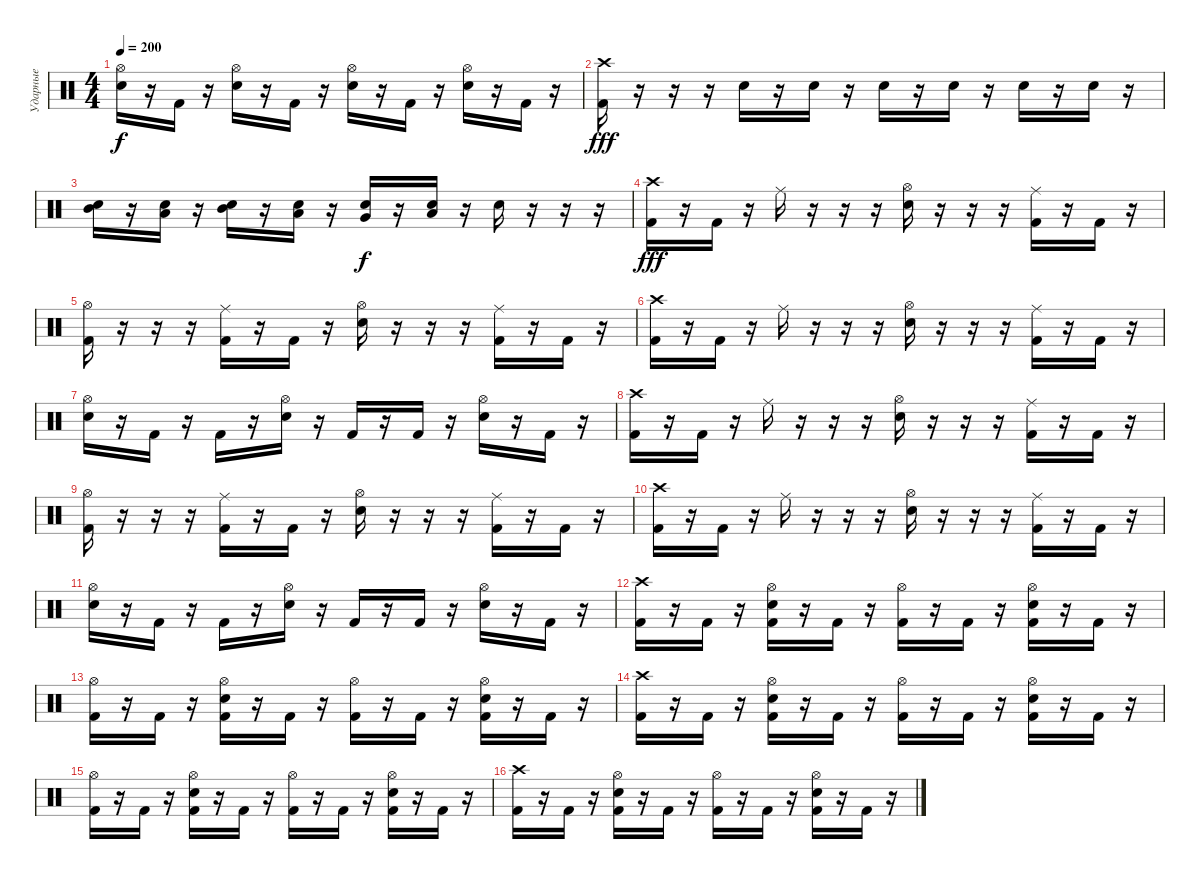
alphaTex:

\track ("Ударные" "Ударные") {instrument percussion}
\staff {score}
\articulation defaults
\ts (4 4)
\tempo 200
\clef neutral
\ks c
("Hi-Hat (open)" "Electric Snare (hit)").16{dy f} r.16 "Kick (hit) 2".16 r.16 ("Hi-Hat (open)" "Electric Snare (hit)").16 r.16 "Kick (hit) 2".16 r.16 ("Hi-Hat (open)" "Electric Snare (hit)").16 r.16 "Kick (hit) 2".16 r.16 ("Hi-Hat (open)" "Electric Snare (hit)").16 r.16 "Kick (hit) 2".16 r.16 |
("Crash high (hit)" "Kick (hit) 2").16{dy fff} r.16 r.16 r.16 "Electric Snare (hit)".16 r.16 "Electric Snare (hit)".16 r.16 "Electric Snare (hit)".16 r.16 "Electric Snare (hit)".16 r.16 "Electric Snare (hit)".16 r.16 "Electric Snare (hit)".16 r.16 |
("Mid Tom (hit)" "Electric Snare (hit)").16 r.16 ("Low Tom (hit)" "Electric Snare (hit)").16 r.16 ("Mid Tom (hit)" "Electric Snare (hit)").16 r.16 ("Low Tom (hit)" "Electric Snare (hit)").16 r.16 ("Very Low Tom (hit)" "Electric Snare (hit)").16{dy f} r.16 ("Low Floor Tom (hit)" "Electric Snare (hit)").16 r.16 "Electric Snare (hit)".16 r.16 r.16 r.16 |
("Crash high (hit)" "Kick (hit) 2").16{dy fff} r.16 "Kick (hit) 2".16 r.16 "Ride (middle)".16 r.16 r.16 r.16 ("Hi-Hat (open)" "Electric Snare (hit)").16 r.16 r.16 r.16 ("Ride (middle)" "Kick (hit) 2").16 r.16 "Kick (hit) 2".16 r.16 |
("Hi-Hat (open)" "Kick (hit) 2").16 r.16 r.16 r.16 ("Ride (middle)" "Kick (hit) 2").16 r.16 "Kick (hit) 2".16 r.16 ("Hi-Hat (open)" "Electric Snare (hit)").16 r.16 r.16 r.16 ("Ride (middle)" "Kick (hit) 2").16 r.16 "Kick (hit) 2".16 r.16 |
("Crash high (hit)" "Kick (hit) 2").16 r.16 "Kick (hit) 2".16 r.16 "Ride (middle)".16 r.16 r.16 r.16 ("Hi-Hat (open)" "Electric Snare (hit)").16 r.16 r.16 r.16 ("Ride (middle)" "Kick (hit) 2").16 r.16 "Kick (hit) 2".16 r.16 |
("Hi-Hat (open)" "Electric Snare (hit)").16 r.16 "Kick (hit) 2".16 r.16 "Kick (hit) 2".16 r.16 ("Hi-Hat (open)" "Electric Snare (hit)").16 r.16 "Kick (hit) 2".16 r.16 "Kick (hit) 2".16 r.16 ("Hi-Hat (open)" "Electric Snare (hit)").16 r.16 "Kick (hit) 2".16 r.16 |
("Crash high (hit)" "Kick (hit) 2").16 r.16 "Kick (hit) 2".16 r.16 "Ride (middle)".16 r.16 r.16 r.16 ("Hi-Hat (open)" "Electric Snare (hit)").16 r.16 r.16 r.16 ("Ride (middle)" "Kick (hit) 2").16 r.16 "Kick (hit) 2".16 r.16 |
("Hi-Hat (open)" "Kick (hit) 2").16 r.16 r.16 r.16 ("Ride (middle)" "Kick (hit) 2").16 r.16 "Kick (hit) 2".16 r.16 ("Hi-Hat (open)" "Electric Snare (hit)").16 r.16 r.16 r.16 ("Ride (middle)" "Kick (hit) 2").16 r.16 "Kick (hit) 2".16 r.16 |
("Crash high (hit)" "Kick (hit) 2").16 r.16 "Kick (hit) 2".16 r.16 "Ride (middle)".16 r.16 r.16 r.16 ("Hi-Hat (open)" "Electric Snare (hit)").16 r.16 r.16 r.16 ("Ride (middle)" "Kick (hit) 2").16 r.16 "Kick (hit) 2".16 r.16 |
("Hi-Hat (open)" "Electric Snare (hit)").16 r.16 "Kick (hit) 2".16 r.16 "Kick (hit) 2".16 r.16 ("Hi-Hat (open)" "Electric Snare (hit)").16 r.16 "Kick (hit) 2".16 r.16 "Kick (hit) 2".16 r.16 ("Hi-Hat (open)" "Electric Snare (hit)").16 r.16 "Kick (hit) 2".16 r.16 |
("Crash high (hit)" "Kick (hit) 2").16 r.16 "Kick (hit) 2".16 r.16 ("Hi-Hat (open)" "Electric Snare (hit)" "Kick (hit) 2").16 r.16 "Kick (hit) 2".16 r.16 ("Hi-Hat (open)" "Kick (hit) 2").16 r.16 "Kick (hit) 2".16 r.16 ("Hi-Hat (open)" "Electric Snare (hit)" "Kick (hit) 2").16 r.16 "Kick (hit) 2".16 r.16 |
("Hi-Hat (open)" "Kick (hit) 2").16 r.16 "Kick (hit) 2".16 r.16 ("Hi-Hat (open)" "Electric Snare (hit)" "Kick (hit) 2").16 r.16 "Kick (hit) 2".16 r.16 ("Hi-Hat (open)" "Kick (hit) 2").16 r.16 "Kick (hit) 2".16 r.16 ("Hi-Hat (open)" "Electric Snare (hit)" "Kick (hit) 2").16 r.16 "Kick (hit) 2".16 r.16 |
("Crash high (hit)" "Kick (hit) 2").16 r.16 "Kick (hit) 2".16 r.16 ("Hi-Hat (open)" "Electric Snare (hit)" "Kick (hit) 2").16 r.16 "Kick (hit) 2".16 r.16 ("Hi-Hat (open)" "Kick (hit) 2").16 r.16 "Kick (hit) 2".16 r.16 ("Hi-Hat (open)" "Electric Snare (hit)" "Kick (hit) 2").16 r.16 "Kick (hit) 2".16 r.16 |
("Hi-Hat (open)" "Kick (hit) 2").16 r.16 "Kick (hit) 2".16 r.16 ("Hi-Hat (open)" "Electric Snare (hit)" "Kick (hit) 2").16 r.16 "Kick (hit) 2".16 r.16 ("Hi-Hat (open)" "Kick (hit) 2").16 r.16 "Kick (hit) 2".16 r.16 ("Hi-Hat (open)" "Electric Snare (hit)" "Kick (hit) 2").16 r.16 "Kick (hit) 2".16 r.16 |
("Crash high (hit)" "Kick (hit) 2").16 r.16 "Kick (hit) 2".16 r.16 ("Hi-Hat (open)" "Electric Snare (hit)" "Kick (hit) 2").16 r.16 "Kick (hit) 2".16 r.16 ("Hi-Hat (open)" "Kick (hit) 2").16 r.16 "Kick (hit) 2".16 r.16 ("Hi-Hat (open)" "Electric Snare (hit)" "Kick (hit) 2").16 r.16 "Kick (hit) 2".16 r.16
